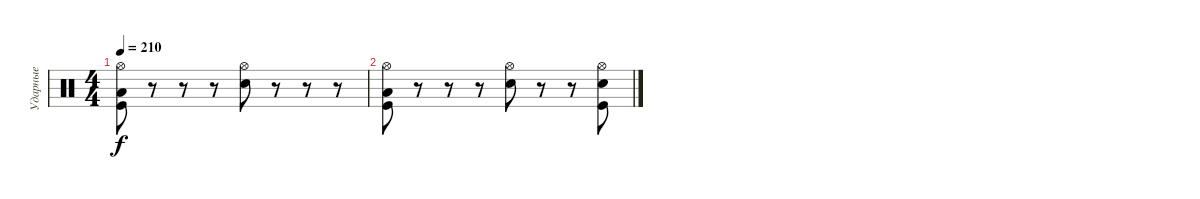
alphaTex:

\track ("Ударные" "Ударные") {instrument percussion}
\staff {score}
\articulation defaults
\ts (4 4)
\tempo 210
\clef neutral
\ks c
("Hi-Hat (open)" "Low Tom (hit)" "Kick (hit)").8{dy f} r.8 r.8 r.8 ("Hi-Hat (open)" "Electric Snare (hit)").8 r.8 r.8 r.8 |
("Hi-Hat (open)" "Low Tom (hit)" "Kick (hit)").8 r.8 r.8 r.8 ("Hi-Hat (open)" "Electric Snare (hit)").8 r.8 r.8 ("Hi-Hat (open)" "Kick (hit)" "Electric Snare (hit)").8
